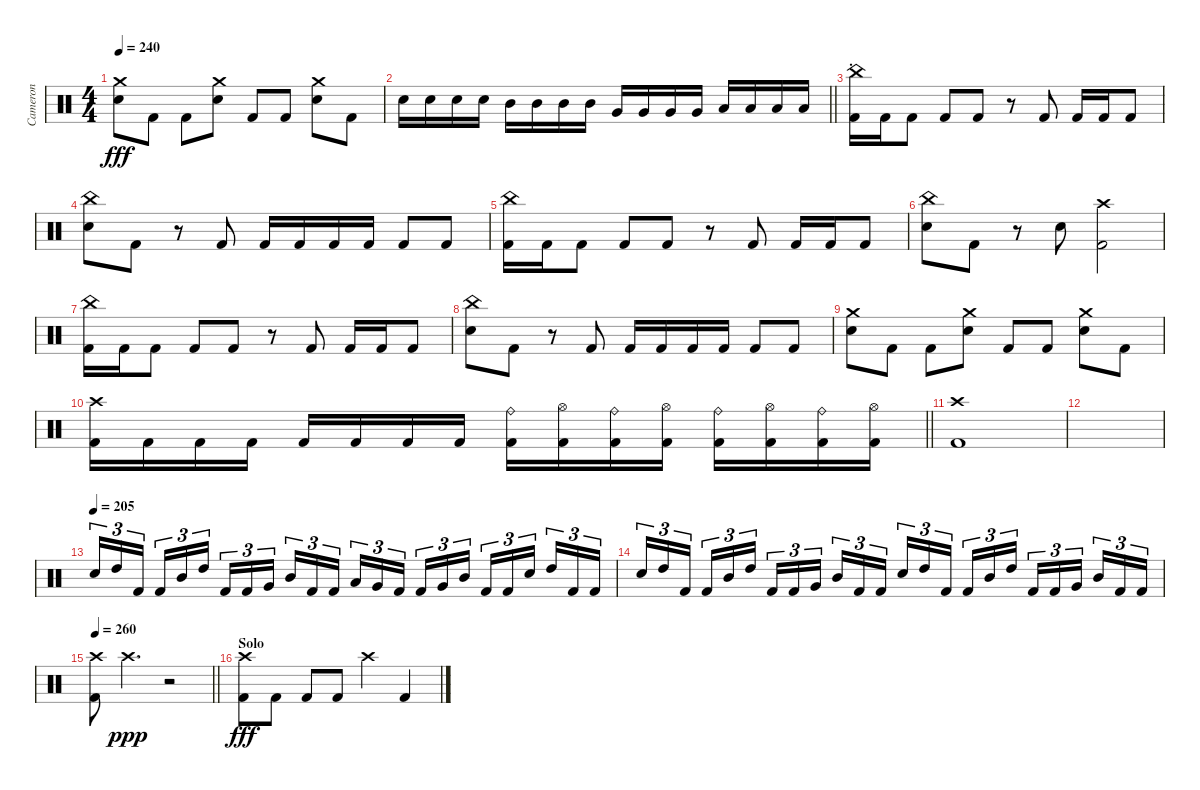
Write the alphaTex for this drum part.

\track ("Cameron" "Cameron") {instrument percussion}
\staff {score}
\articulation defaults
\ts (4 4)
\tempo 240
\clef neutral
\ks c
("Crash medium (hit)" "Electric Snare (hit)").8{dy fff} "Kick (hit) 2".8 "Kick (hit) 2".8 ("Crash medium (hit)" "Electric Snare (hit)").8 "Kick (hit) 2".8 "Kick (hit) 2".8 ("Crash medium (hit)" "Electric Snare (hit)").8 "Kick (hit) 2".8 |
\barLineRight lightlight "Electric Snare (hit)".16 "Electric Snare (hit)".16 "Electric Snare (hit)".16 "Electric Snare (hit)".16 "Mid Tom (hit)".16 "Mid Tom (hit)".16 "Mid Tom (hit)".16 "Mid Tom (hit)".16 "Very Low Tom (hit)".16 "Very Low Tom (hit)".16 "Very Low Tom (hit)".16 "Very Low Tom (hit)".16 "Low Floor Tom (hit)".16 "Low Floor Tom (hit)".16 "Low Floor Tom (hit)".16 "Low Floor Tom (hit)".16
|
\section ("" ".")
("China (hit)" "Kick (hit) 2").16 "Kick (hit) 2".16 "Kick (hit) 2".8 "Kick (hit) 2".8 "Kick (hit) 2".8 r.8 "Kick (hit) 2".8 "Kick (hit) 2".16 "Kick (hit) 2".16 "Kick (hit) 2".8 |
("China (hit)" "Electric Snare (hit)").8 "Kick (hit) 2".8 r.8 "Kick (hit) 2".8 "Kick (hit) 2".16 "Kick (hit) 2".16 "Kick (hit) 2".16 "Kick (hit) 2".16 "Kick (hit) 2".8 "Kick (hit) 2".8 |
("China (hit)" "Kick (hit) 2").16 "Kick (hit) 2".16 "Kick (hit) 2".8 "Kick (hit) 2".8 "Kick (hit) 2".8 r.8 "Kick (hit) 2".8 "Kick (hit) 2".16 "Kick (hit) 2".16 "Kick (hit) 2".8 |
("China (hit)" "Electric Snare (hit)").8 "Kick (hit) 2".8 r.8 "Electric Snare (hit)".8 ("Crash high (hit)" "Kick (hit) 2").2 |
("China (hit)" "Kick (hit) 2").16 "Kick (hit) 2".16 "Kick (hit) 2".8 "Kick (hit) 2".8 "Kick (hit) 2".8 r.8 "Kick (hit) 2".8 "Kick (hit) 2".16 "Kick (hit) 2".16 "Kick (hit) 2".8 |
("China (hit)" "Electric Snare (hit)").8 "Kick (hit) 2".8 r.8 "Kick (hit) 2".8 "Kick (hit) 2".16 "Kick (hit) 2".16 "Kick (hit) 2".16 "Kick (hit) 2".16 "Kick (hit) 2".8 "Kick (hit) 2".8 |
("Crash medium (hit)" "Electric Snare (hit)").8 "Kick (hit) 2".8 "Kick (hit) 2".8 ("Crash medium (hit)" "Electric Snare (hit)").8 "Kick (hit) 2".8 "Kick (hit) 2".8 ("Crash medium (hit)" "Electric Snare (hit)").8 "Kick (hit) 2".8 |
\barLineRight lightlight
("Crash high (hit)" "Kick (hit) 2").16 "Kick (hit) 2".16 "Kick (hit) 2".16 "Kick (hit) 2".16 "Kick (hit) 2".16 "Kick (hit) 2".16 "Kick (hit) 2".16 "Kick (hit) 2".16 ("Ride (bell)" "Kick (hit) 2").16 ("Hi-Hat (open)" "Kick (hit) 2").16 ("Ride (bell)" "Kick (hit) 2").16 ("Hi-Hat (open)" "Kick (hit) 2").16 ("Ride (bell)" "Kick (hit) 2").16 ("Hi-Hat (open)" "Kick (hit) 2").16 ("Ride (bell)" "Kick (hit) 2").16 ("Hi-Hat (open)" "Kick (hit) 2").16 |
("Crash high (hit)" "Kick (hit) 2").1 |
|
\tempo (205)
"Electric Snare (hit)".16{tu (3 2)} "High Tom (hit)".16{tu (3 2)} "Kick (hit) 2".16{tu (3 2) beam splitsecondary} "Kick (hit) 2".16{tu (3 2)} "Mid Tom (hit)".16{tu (3 2)} "High Tom (hit)".16{tu (3 2)} "Kick (hit) 2".16{tu (3 2)} "Kick (hit) 2".16{tu (3 2)} "Very Low Tom (hit)".16{tu (3 2) beam splitsecondary} "Mid Tom (hit)".16{tu (3 2)} "Kick (hit) 2".16{tu (3 2)} "Kick (hit) 2".16{tu (3 2)} "Low Floor Tom (hit)".16{tu (3 2)} "Very Low Tom (hit)".16{tu (3 2)} "Kick (hit) 2".16{tu (3 2) beam splitsecondary} "Kick (hit) 2".16{tu (3 2)} "Very Low Tom (hit)".16{tu (3 2)} "Mid Tom (hit)".16{tu (3 2)} "Kick (hit) 2".16{tu (3 2)} "Kick (hit) 2".16{tu (3 2)} "Electric Snare (hit)".16{tu (3 2) beam splitsecondary} "High Tom (hit)".16{tu (3 2)} "Kick (hit) 2".16{tu (3 2)} "Kick (hit) 2".16{tu (3 2)} |
"Electric Snare (hit)".16{tu (3 2)} "High Tom (hit)".16{tu (3 2)} "Kick (hit) 2".16{tu (3 2) beam splitsecondary} "Kick (hit) 2".16{tu (3 2)} "Mid Tom (hit)".16{tu (3 2)} "High Tom (hit)".16{tu (3 2)} "Kick (hit) 2".16{tu (3 2)} "Kick (hit) 2".16{tu (3 2)} "Very Low Tom (hit)".16{tu (3 2) beam splitsecondary} "Mid Tom (hit)".16{tu (3 2)} "Kick (hit) 2".16{tu (3 2)} "Kick (hit) 2".16{tu (3 2)} "Electric Snare (hit)".16{tu (3 2)} "High Tom (hit)".16{tu (3 2)} "Kick (hit) 2".16{tu (3 2) beam splitsecondary} "Kick (hit) 2".16{tu (3 2)} "Mid Tom (hit)".16{tu (3 2)} "High Tom (hit)".16{tu (3 2)} "Kick (hit) 2".16{tu (3 2)} "Kick (hit) 2".16{tu (3 2)} "Very Low Tom (hit)".16{tu (3 2) beam splitsecondary} "Mid Tom (hit)".16{tu (3 2)} "Kick (hit) 2".16{tu (3 2)} "Kick (hit) 2".16{tu (3 2)} |
\tempo 260
\barLineRight lightlight
("Crash high (hit)" "Kick (hit) 2").8 "Crash high (hit)".4{d dy ppp} r.2 |
\section ("" "Solo")
("Crash high (hit)" "Kick (hit) 2").8{dy fff} "Kick (hit) 2".8 "Kick (hit) 2".8 "Kick (hit) 2".8 "Crash high (hit)".4 "Kick (hit) 2".4
